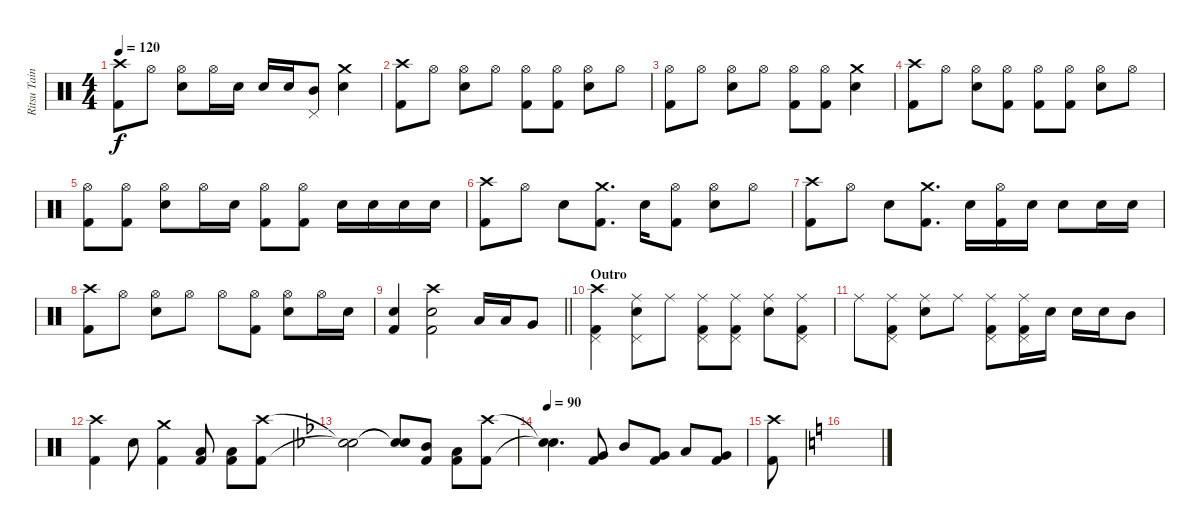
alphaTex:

\track ("Ritsu Tainaka" "Ritsu Tain") {instrument percussion}
\staff {score}
\articulation defaults
\ts (4 4)
\tempo 120
\clef neutral
\ks c
("Crash high (hit)" "Kick (hit) 2").8{dy f} "Hi-Hat (open)".8 ("Hi-Hat (open)" "Snare (hit) 2").8 "Hi-Hat (open)".16 "Snare (hit) 2".16 "Snare (hit) 2".16 "Snare (hit) 2".16 ("Mid Tom (hit)" "Pedal Hi-Hat (hit)").8 ("Crash medium (hit)" "Snare (hit) 2").4 |
("Crash high (hit)" "Kick (hit) 2").8 "Hi-Hat (open)".8 ("Hi-Hat (open)" "Snare (hit) 2").8 "Hi-Hat (open)".8 ("Hi-Hat (open)" "Kick (hit) 2").8 ("Hi-Hat (open)" "Kick (hit) 2").8 ("Hi-Hat (open)" "Snare (hit) 2").8 "Hi-Hat (open)".8 |
("Hi-Hat (open)" "Kick (hit) 2").8 "Hi-Hat (open)".8 ("Hi-Hat (open)" "Snare (hit) 2").8 "Hi-Hat (open)".8 ("Hi-Hat (open)" "Kick (hit) 2").8 ("Hi-Hat (open)" "Kick (hit) 2").8 ("Crash medium (hit)" "Snare (hit) 2").4 |
("Crash high (hit)" "Kick (hit) 2").8 "Hi-Hat (open)".8 ("Hi-Hat (open)" "Snare (hit) 2").8 ("Hi-Hat (open)" "Kick (hit) 2").8 ("Hi-Hat (open)" "Kick (hit) 2").8 ("Hi-Hat (open)" "Kick (hit) 2").8 ("Hi-Hat (open)" "Snare (hit) 2").8 "Hi-Hat (open)".8 |
("Hi-Hat (open)" "Kick (hit) 2").8 ("Hi-Hat (open)" "Kick (hit) 2").8 ("Hi-Hat (open)" "Snare (hit) 2").8 "Hi-Hat (open)".16 "Snare (hit) 2".16 ("Hi-Hat (open)" "Kick (hit) 2").8 ("Hi-Hat (open)" "Kick (hit) 2").8 "Snare (hit) 2".16 "Snare (hit) 2".16 "Snare (hit) 2".16 "Snare (hit) 2".16 |
("Crash high (hit)" "Kick (hit) 2").8 "Hi-Hat (open)".8 "Snare (hit) 2".8 ("Crash medium (hit)" "Kick (hit) 2").8{d} "Snare (hit) 2".16 ("Hi-Hat (open)" "Kick (hit) 2").8 ("Hi-Hat (open)" "Snare (hit) 2").8 "Hi-Hat (open)".8 |
("Crash high (hit)" "Kick (hit) 2").8 "Hi-Hat (open)".8 "Snare (hit) 2".8 ("Crash medium (hit)" "Kick (hit) 2").8{d} "Snare (hit) 2".16 ("Hi-Hat (open)" "Kick (hit) 2").16 "Snare (hit) 2".16 "Snare (hit) 2".8 "Snare (hit) 2".16 "Snare (hit) 2".16 |
("Crash high (hit)" "Kick (hit) 2").8 "Hi-Hat (open)".8 ("Hi-Hat (open)" "Snare (hit) 2").8 "Hi-Hat (open)".8 "Hi-Hat (open)".8 ("Hi-Hat (open)" "Kick (hit) 2").8 ("Hi-Hat (open)" "Snare (hit) 2").8 "Hi-Hat (open)".16 "Snare (hit) 2".16 |
\barLineRight lightlight
("Snare (hit) 2" "Kick (hit) 2").4 ("Crash high (hit)" "Snare (hit) 2" "Kick (hit) 2").2 "Low Tom (hit)".16 "Low Tom (hit)".16 "Very Low Tom (hit)".8 |
\section ("" "Outro")
("Crash high (hit)" "Pedal Hi-Hat (hit)" "Kick (hit) 2").4 ("Ride (middle)" "Pedal Hi-Hat (hit)" "Snare (hit) 2").8 "Ride (middle)".8 ("Ride (middle)" "Pedal Hi-Hat (hit)" "Kick (hit) 2").8 ("Ride (middle)" "Pedal Hi-Hat (hit)" "Kick (hit) 2").8 ("Ride (middle)" "Snare (hit) 2").8 ("Ride (middle)" "Pedal Hi-Hat (hit)" "Kick (hit) 2").8 |
"Ride (middle)".8 ("Ride (middle)" "Pedal Hi-Hat (hit)" "Kick (hit) 2").8 ("Ride (middle)" "Snare (hit) 2").8 "Ride (middle)".8 ("Ride (middle)" "Pedal Hi-Hat (hit)" "Kick (hit) 2").8 ("Ride (middle)" "Pedal Hi-Hat (hit)" "Kick (hit) 2").16 "Snare (hit) 2".16 "Snare (hit) 2".16 "Snare (hit) 2".16 "Mid Tom (hit)".8 |
("Crash high (hit)" "Kick (hit) 2").4 "Snare (hit) 2".8 ("Crash medium (hit)" "Kick (hit) 2").4 ("Low Tom (hit)" "Kick (hit) 2").8 ("Low Tom (hit)" "Kick (hit) 2").8 ("Crash high (hit)" "Kick (hit) 2").8 |
\ks bb
("Snare (hit)"{t} "Snare (hit)"{t}).2 ("Snare (hit)"{t} "Snare (hit)"{t}).8 ("Mid Tom (hit)" "Kick (hit) 2").8 ("Low Tom (hit)" "Kick (hit) 2").8 ("Crash high (hit)" "Kick (hit) 2").8 |
\tempo 90
("Snare (hit)"{t} "Snare (hit)"{t}).4{d} ("Very Low Tom (hit)" "Kick (hit) 2").8 "Mid Tom (hit)".8 ("Very Low Tom (hit)" "Kick (hit) 2").8 "Low Tom (hit)".8 ("Very Low Tom (hit)" "Kick (hit) 2").8 |
("Crash high (hit)" "Kick (hit) 2").8 |
\ks c
